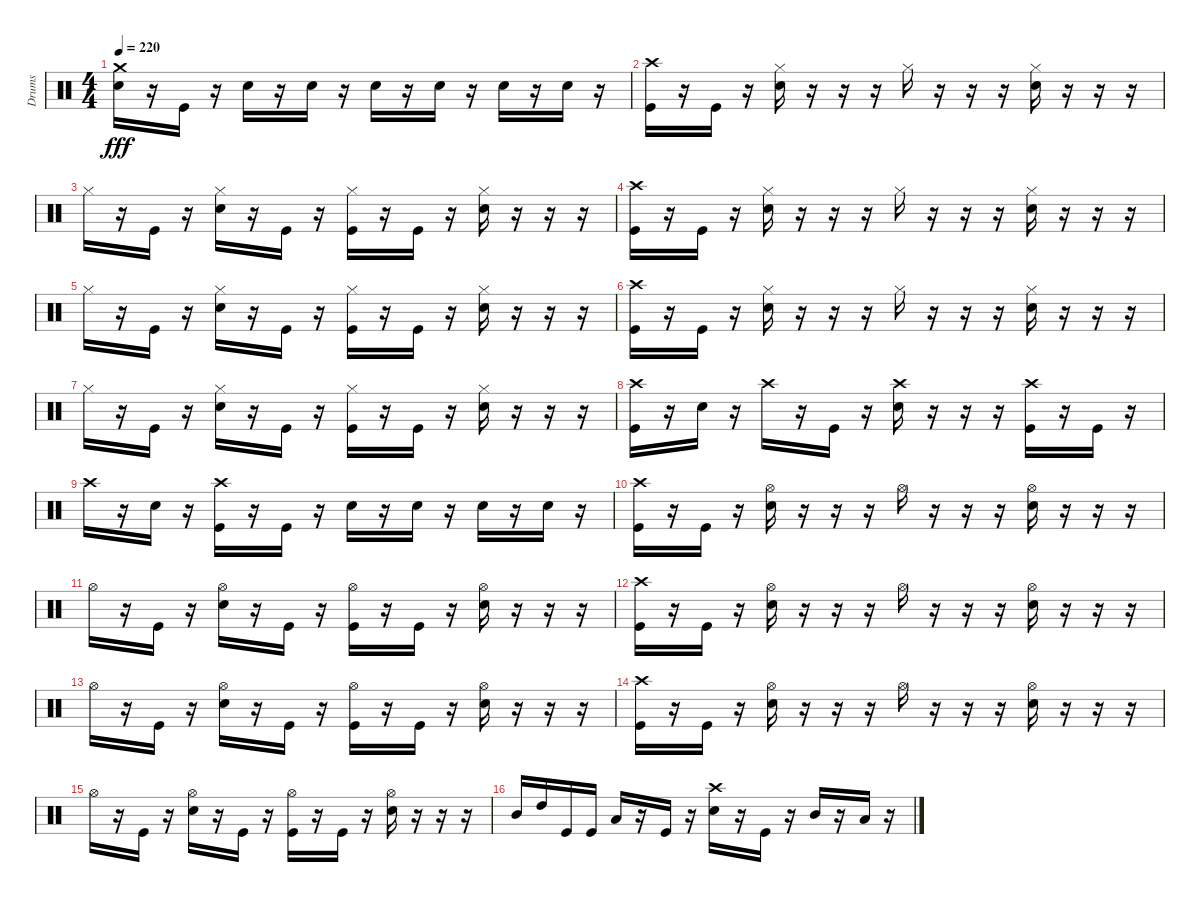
\track ("Drums" "Drums") {instrument percussion}
\staff {score}
\articulation defaults
\ts (4 4)
\tempo 220
\clef neutral
\ks c
("Crash medium (hit)" "Electric Snare (hit)").16{dy fff} r.16 "Kick (hit)".16 r.16 "Electric Snare (hit)".16 r.16 "Electric Snare (hit)".16 r.16 "Electric Snare (hit)".16 r.16 "Electric Snare (hit)".16 r.16 "Electric Snare (hit)".16 r.16 "Electric Snare (hit)".16 r.16 |
("Crash high (hit)" "Kick (hit)").16 r.16 "Kick (hit)".16 r.16 ("Hi-Hat (closed)" "Electric Snare (hit)").16 r.16 r.16 r.16 "Hi-Hat (closed)".16 r.16 r.16 r.16 ("Hi-Hat (closed)" "Electric Snare (hit)").16 r.16 r.16 r.16 |
"Hi-Hat (closed)".16 r.16 "Kick (hit)".16 r.16 ("Hi-Hat (closed)" "Electric Snare (hit)").16 r.16 "Kick (hit)".16 r.16 ("Hi-Hat (closed)" "Kick (hit)").16 r.16 "Kick (hit)".16 r.16 ("Hi-Hat (closed)" "Electric Snare (hit)").16 r.16 r.16 r.16 |
("Crash high (hit)" "Kick (hit)").16 r.16 "Kick (hit)".16 r.16 ("Hi-Hat (closed)" "Electric Snare (hit)").16 r.16 r.16 r.16 "Hi-Hat (closed)".16 r.16 r.16 r.16 ("Hi-Hat (closed)" "Electric Snare (hit)").16 r.16 r.16 r.16 |
"Hi-Hat (closed)".16 r.16 "Kick (hit)".16 r.16 ("Hi-Hat (closed)" "Electric Snare (hit)").16 r.16 "Kick (hit)".16 r.16 ("Hi-Hat (closed)" "Kick (hit)").16 r.16 "Kick (hit)".16 r.16 ("Hi-Hat (closed)" "Electric Snare (hit)").16 r.16 r.16 r.16 |
("Crash high (hit)" "Kick (hit)").16 r.16 "Kick (hit)".16 r.16 ("Hi-Hat (closed)" "Electric Snare (hit)").16 r.16 r.16 r.16 "Hi-Hat (closed)".16 r.16 r.16 r.16 ("Hi-Hat (closed)" "Electric Snare (hit)").16 r.16 r.16 r.16 |
"Hi-Hat (closed)".16 r.16 "Kick (hit)".16 r.16 ("Hi-Hat (closed)" "Electric Snare (hit)").16 r.16 "Kick (hit)".16 r.16 ("Hi-Hat (closed)" "Kick (hit)").16 r.16 "Kick (hit)".16 r.16 ("Hi-Hat (closed)" "Electric Snare (hit)").16 r.16 r.16 r.16 |
("Crash high (hit)" "Kick (hit)").16 r.16 "Electric Snare (hit)".16 r.16 "Crash high (hit)".16 r.16 "Kick (hit)".16 r.16 ("Crash high (hit)" "Electric Snare (hit)").16 r.16 r.16 r.16 ("Crash high (hit)" "Kick (hit)").16 r.16 "Kick (hit)".16 r.16 |
"Crash high (hit)".16 r.16 "Electric Snare (hit)".16 r.16 ("Crash high (hit)" "Kick (hit)").16 r.16 "Kick (hit)".16 r.16 "Electric Snare (hit)".16 r.16 "Electric Snare (hit)".16 r.16 "Electric Snare (hit)".16 r.16 "Electric Snare (hit)".16 r.16 |
("Crash high (hit)" "Kick (hit)").16 r.16 "Kick (hit)".16 r.16 ("Hi-Hat (open)" "Electric Snare (hit)").16 r.16 r.16 r.16 "Hi-Hat (open)".16 r.16 r.16 r.16 ("Hi-Hat (open)" "Electric Snare (hit)").16 r.16 r.16 r.16 |
"Hi-Hat (open)".16 r.16 "Kick (hit)".16 r.16 ("Hi-Hat (open)" "Electric Snare (hit)").16 r.16 "Kick (hit)".16 r.16 ("Hi-Hat (open)" "Kick (hit)").16 r.16 "Kick (hit)".16 r.16 ("Hi-Hat (open)" "Electric Snare (hit)").16 r.16 r.16 r.16 |
("Crash high (hit)" "Kick (hit)").16 r.16 "Kick (hit)".16 r.16 ("Hi-Hat (open)" "Electric Snare (hit)").16 r.16 r.16 r.16 "Hi-Hat (open)".16 r.16 r.16 r.16 ("Hi-Hat (open)" "Electric Snare (hit)").16 r.16 r.16 r.16 |
"Hi-Hat (open)".16 r.16 "Kick (hit)".16 r.16 ("Hi-Hat (open)" "Electric Snare (hit)").16 r.16 "Kick (hit)".16 r.16 ("Hi-Hat (open)" "Kick (hit)").16 r.16 "Kick (hit)".16 r.16 ("Hi-Hat (open)" "Electric Snare (hit)").16 r.16 r.16 r.16 |
("Crash high (hit)" "Kick (hit)").16 r.16 "Kick (hit)".16 r.16 ("Hi-Hat (open)" "Electric Snare (hit)").16 r.16 r.16 r.16 "Hi-Hat (open)".16 r.16 r.16 r.16 ("Hi-Hat (open)" "Electric Snare (hit)").16 r.16 r.16 r.16 |
"Hi-Hat (open)".16 r.16 "Kick (hit)".16 r.16 ("Hi-Hat (open)" "Electric Snare (hit)").16 r.16 "Kick (hit)".16 r.16 ("Hi-Hat (open)" "Kick (hit)").16 r.16 "Kick (hit)".16 r.16 ("Hi-Hat (open)" "Electric Snare (hit)").16 r.16 r.16 r.16 |
"Mid Tom (hit)".16 "High Tom (hit)".16 "Kick (hit)".16 "Kick (hit)".16 "Low Tom (hit)".16 r.16 "Kick (hit)".16 r.16 ("Crash high (hit)" "Electric Snare (hit)").16 r.16 "Kick (hit)".16 r.16 "Mid Tom (hit)".16 r.16 "Low Tom (hit)".16 r.16
